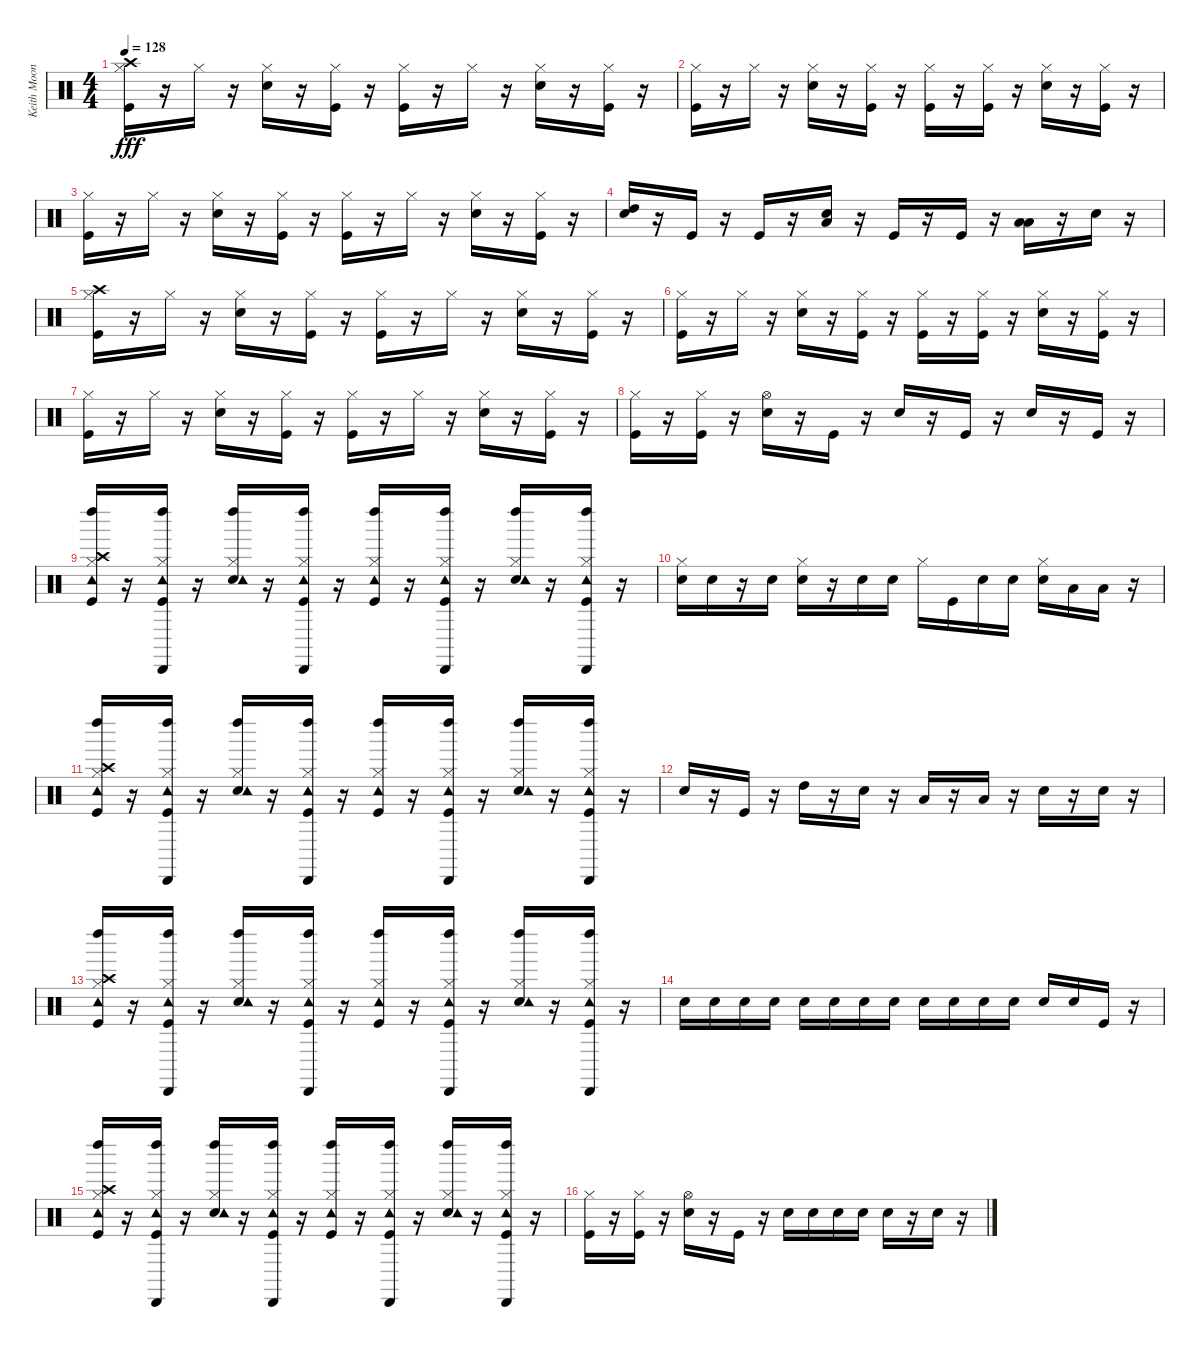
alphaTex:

\track ("Keith Moon" "Keith Moon") {instrument percussion}
\staff {score}
\articulation defaults
\ts (4 4)
\tempo 128
\clef neutral
\ks c
("Kick (hit)" "Hi-Hat (closed)" "Crash high (hit)").16{dy fff} r.16 "Hi-Hat (closed)".16 r.16 ("Snare (hit) 2" "Hi-Hat (closed)").16 r.16 ("Kick (hit)" "Hi-Hat (closed)").16 r.16 ("Kick (hit)" "Hi-Hat (closed)").16 r.16 "Hi-Hat (closed)".16 r.16 ("Snare (hit) 2" "Hi-Hat (closed)").16 r.16 ("Kick (hit)" "Hi-Hat (closed)").16 r.16 |
("Kick (hit)" "Hi-Hat (closed)").16 r.16 "Hi-Hat (closed)".16 r.16 ("Snare (hit) 2" "Hi-Hat (closed)").16 r.16 ("Kick (hit)" "Hi-Hat (closed)").16 r.16 ("Kick (hit)" "Hi-Hat (closed)").16 r.16 ("Kick (hit)" "Hi-Hat (closed)").16 r.16 ("Snare (hit) 2" "Hi-Hat (closed)").16 r.16 ("Kick (hit)" "Hi-Hat (closed)").16 r.16 |
("Kick (hit)" "Hi-Hat (closed)").16 r.16 "Hi-Hat (closed)".16 r.16 ("Snare (hit) 2" "Hi-Hat (closed)").16 r.16 ("Kick (hit)" "Hi-Hat (closed)").16 r.16 ("Kick (hit)" "Hi-Hat (closed)").16 r.16 "Hi-Hat (closed)".16 r.16 ("Snare (hit) 2" "Hi-Hat (closed)").16 r.16 ("Kick (hit)" "Hi-Hat (closed)").16 r.16 |
("Snare (hit) 2" "High Tom (hit)").16 r.16 "Kick (hit)".16 r.16 "Kick (hit)".16 r.16 ("Snare (hit) 2" "Low Tom (hit)").16 r.16 "Kick (hit)".16 r.16 "Kick (hit)".16 r.16 ("Low Floor Tom (hit)" "Low Tom (hit)").16 r.16 "Snare (hit) 2".16 r.16 |
("Kick (hit)" "Hi-Hat (closed)" "Crash high (hit)").16 r.16 "Hi-Hat (closed)".16 r.16 ("Snare (hit) 2" "Hi-Hat (closed)").16 r.16 ("Kick (hit)" "Hi-Hat (closed)").16 r.16 ("Kick (hit)" "Hi-Hat (closed)").16 r.16 "Hi-Hat (closed)".16 r.16 ("Snare (hit) 2" "Hi-Hat (closed)").16 r.16 ("Kick (hit)" "Hi-Hat (closed)").16 r.16 |
("Kick (hit)" "Hi-Hat (closed)").16 r.16 "Hi-Hat (closed)".16 r.16 ("Snare (hit) 2" "Hi-Hat (closed)").16 r.16 ("Kick (hit)" "Hi-Hat (closed)").16 r.16 ("Kick (hit)" "Hi-Hat (closed)").16 r.16 ("Kick (hit)" "Hi-Hat (closed)").16 r.16 ("Snare (hit) 2" "Hi-Hat (closed)").16 r.16 ("Kick (hit)" "Hi-Hat (closed)").16 r.16 |
("Kick (hit)" "Hi-Hat (closed)").16 r.16 "Hi-Hat (closed)".16 r.16 ("Snare (hit) 2" "Hi-Hat (closed)").16 r.16 ("Kick (hit)" "Hi-Hat (closed)").16 r.16 ("Kick (hit)" "Hi-Hat (closed)").16 r.16 "Hi-Hat (closed)".16 r.16 ("Snare (hit) 2" "Hi-Hat (closed)").16 r.16 ("Kick (hit)" "Hi-Hat (closed)").16 r.16 |
("Kick (hit)" "Hi-Hat (closed)").16 r.16 ("Kick (hit)" "Hi-Hat (closed)").16 r.16 ("Snare (hit) 2" "Hi-Hat (open)").16 r.16 "Kick (hit)".16 r.16 "Snare (hit) 2".16 r.16 "Kick (hit)".16 r.16 "Snare (hit) 2".16 r.16 "Kick (hit)".16 r.16 |
("Kick (hit)" "Hi-Hat (closed)" "Crash high (hit)" "Tambourine (hit)" "Left Maraca (hit)").16 r.16 ("Kick (hit)" "Hi-Hat (closed)" "Tambourine (hit)" "Left Maraca (hit)" "Cabasa (hit)").16 r.16 ("Snare (hit) 2" "Hi-Hat (closed)" "Tambourine (hit)" "Left Maraca (hit)").16 r.16 ("Kick (hit)" "Hi-Hat (closed)" "Tambourine (hit)" "Left Maraca (hit)" "Cabasa (hit)").16 r.16 ("Kick (hit)" "Hi-Hat (closed)" "Tambourine (hit)" "Left Maraca (hit)").16 r.16 ("Kick (hit)" "Hi-Hat (closed)" "Tambourine (hit)" "Left Maraca (hit)" "Cabasa (hit)").16 r.16 ("Snare (hit) 2" "Hi-Hat (closed)" "Tambourine (hit)" "Left Maraca (hit)").16 r.16 ("Kick (hit)" "Hi-Hat (closed)" "Tambourine (hit)" "Left Maraca (hit)" "Cabasa (hit)").16 r.16 |
("Snare (hit) 2" "Hi-Hat (closed)").16 "Snare (hit) 2".16 r.16 "Snare (hit) 2".16 ("Snare (hit) 2" "Hi-Hat (closed)").16 r.16 "Snare (hit) 2".16 "Snare (hit) 2".16 "Hi-Hat (closed)".16 "Kick (hit)".16 "Snare (hit) 2".16 "Snare (hit) 2".16 ("Snare (hit) 2" "Hi-Hat (closed)").16 "Low Tom (hit)".16 "Low Floor Tom (hit)".16 r.16 |
("Kick (hit)" "Hi-Hat (closed)" "Crash high (hit)" "Tambourine (hit)" "Left Maraca (hit)").16 r.16 ("Kick (hit)" "Hi-Hat (closed)" "Tambourine (hit)" "Left Maraca (hit)" "Cabasa (hit)").16 r.16 ("Snare (hit) 2" "Hi-Hat (closed)" "Tambourine (hit)" "Left Maraca (hit)").16 r.16 ("Kick (hit)" "Hi-Hat (closed)" "Tambourine (hit)" "Left Maraca (hit)" "Cabasa (hit)").16 r.16 ("Kick (hit)" "Hi-Hat (closed)" "Tambourine (hit)" "Left Maraca (hit)").16 r.16 ("Kick (hit)" "Hi-Hat (closed)" "Tambourine (hit)" "Left Maraca (hit)" "Cabasa (hit)").16 r.16 ("Snare (hit) 2" "Hi-Hat (closed)" "Tambourine (hit)" "Left Maraca (hit)").16 r.16 ("Kick (hit)" "Hi-Hat (closed)" "Tambourine (hit)" "Left Maraca (hit)" "Cabasa (hit)").16 r.16 |
"Snare (hit) 2".16 r.16 "Kick (hit)".16 r.16 "High Tom (hit)".16 r.16 "Snare (hit) 2".16 r.16 "Low Tom (hit)".16 r.16 "Low Tom (hit)".16 r.16 "Snare (hit) 2".16 r.16 "Snare (hit) 2".16 r.16 |
("Kick (hit)" "Hi-Hat (closed)" "Crash high (hit)" "Tambourine (hit)" "Left Maraca (hit)").16 r.16 ("Kick (hit)" "Hi-Hat (closed)" "Tambourine (hit)" "Left Maraca (hit)" "Cabasa (hit)").16 r.16 ("Snare (hit) 2" "Hi-Hat (closed)" "Tambourine (hit)" "Left Maraca (hit)").16 r.16 ("Kick (hit)" "Hi-Hat (closed)" "Tambourine (hit)" "Left Maraca (hit)" "Cabasa (hit)").16 r.16 ("Kick (hit)" "Hi-Hat (closed)" "Tambourine (hit)" "Left Maraca (hit)").16 r.16 ("Kick (hit)" "Hi-Hat (closed)" "Tambourine (hit)" "Left Maraca (hit)" "Cabasa (hit)").16 r.16 ("Snare (hit) 2" "Hi-Hat (closed)" "Tambourine (hit)" "Left Maraca (hit)").16 r.16 ("Kick (hit)" "Hi-Hat (closed)" "Tambourine (hit)" "Left Maraca (hit)" "Cabasa (hit)").16 r.16 |
"Snare (hit) 2".16 "Snare (hit) 2".16 "Snare (hit) 2".16 "Snare (hit) 2".16 "Snare (hit) 2".16 "Snare (hit) 2".16 "Snare (hit) 2".16 "Snare (hit) 2".16 "Snare (hit) 2".16 "Snare (hit) 2".16 "Snare (hit) 2".16 "Snare (hit) 2".16 "Snare (hit) 2".16 "Snare (hit) 2".16 "Kick (hit)".16 r.16 |
("Kick (hit)" "Hi-Hat (closed)" "Crash high (hit)" "Tambourine (hit)" "Left Maraca (hit)").16 r.16 ("Kick (hit)" "Hi-Hat (closed)" "Tambourine (hit)" "Left Maraca (hit)" "Cabasa (hit)").16 r.16 ("Snare (hit) 2" "Hi-Hat (closed)" "Tambourine (hit)" "Left Maraca (hit)").16 r.16 ("Kick (hit)" "Hi-Hat (closed)" "Tambourine (hit)" "Left Maraca (hit)" "Cabasa (hit)").16 r.16 ("Kick (hit)" "Hi-Hat (closed)" "Tambourine (hit)" "Left Maraca (hit)").16 r.16 ("Kick (hit)" "Hi-Hat (closed)" "Tambourine (hit)" "Left Maraca (hit)" "Cabasa (hit)").16 r.16 ("Snare (hit) 2" "Hi-Hat (closed)" "Tambourine (hit)" "Left Maraca (hit)").16 r.16 ("Kick (hit)" "Hi-Hat (closed)" "Tambourine (hit)" "Left Maraca (hit)" "Cabasa (hit)").16 r.16 |
("Kick (hit)" "Hi-Hat (closed)").16 r.16 ("Kick (hit)" "Hi-Hat (closed)").16 r.16 ("Snare (hit) 2" "Hi-Hat (open)").16 r.16 "Kick (hit)".16 r.16 "Snare (hit) 2".16 "Snare (hit) 2".16 "Snare (hit) 2".16 "Snare (hit) 2".16 "Snare (hit) 2".16 r.16 "Snare (hit) 2".16 r.16
